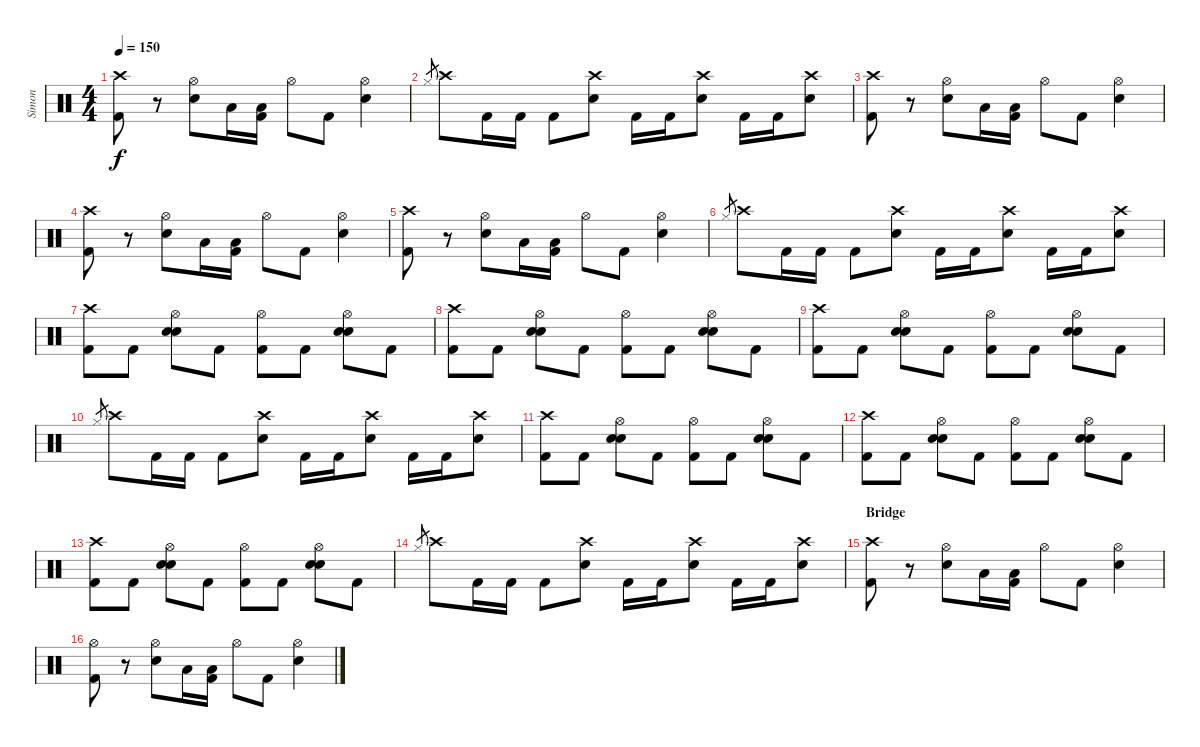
\track ("Simon" "Simon") {instrument percussion}
\staff {score}
\articulation defaults
\ts (4 4)
\tempo 150
\clef neutral
\ks c
("Crash high (hit)" "Kick (hit) 2").8{dy f} r.8 ("Hi-Hat (open)" "Electric Snare (hit)").8 "Low Tom (hit)".16 ("Kick (hit) 2" "Low Tom (hit)").16 "Hi-Hat (open)".8 "Kick (hit) 2".8 ("Hi-Hat (open)" "Electric Snare (hit)").4 |
"Hi-Hat (closed)".8{gr} "Crash high (hit)".8 "Kick (hit) 2".16 "Kick (hit) 2".16 "Kick (hit) 2".8 ("Crash high (hit)" "Electric Snare (hit)").8 "Kick (hit) 2".16 "Kick (hit) 2".16 ("Crash high (hit)" "Electric Snare (hit)").8 "Kick (hit) 2".16 "Kick (hit) 2".16 ("Crash high (hit)" "Electric Snare (hit)").8 |
("Crash high (hit)" "Kick (hit) 2").8 r.8 ("Hi-Hat (open)" "Electric Snare (hit)").8 "Low Tom (hit)".16 ("Kick (hit) 2" "Low Tom (hit)").16 "Hi-Hat (open)".8 "Kick (hit) 2".8 ("Hi-Hat (open)" "Electric Snare (hit)").4 |
("Crash high (hit)" "Kick (hit) 2").8 r.8 ("Hi-Hat (open)" "Electric Snare (hit)").8 "Low Tom (hit)".16 ("Kick (hit) 2" "Low Tom (hit)").16 "Hi-Hat (open)".8 "Kick (hit) 2".8 ("Hi-Hat (open)" "Electric Snare (hit)").4 |
("Crash high (hit)" "Kick (hit) 2").8 r.8 ("Hi-Hat (open)" "Electric Snare (hit)").8 "Low Tom (hit)".16 ("Kick (hit) 2" "Low Tom (hit)").16 "Hi-Hat (open)".8 "Kick (hit) 2".8 ("Hi-Hat (open)" "Electric Snare (hit)").4 |
"Hi-Hat (closed)".8{gr} "Crash high (hit)".8 "Kick (hit) 2".16 "Kick (hit) 2".16 "Kick (hit) 2".8 ("Crash high (hit)" "Electric Snare (hit)").8 "Kick (hit) 2".16 "Kick (hit) 2".16 ("Crash high (hit)" "Electric Snare (hit)").8 "Kick (hit) 2".16 "Kick (hit) 2".16 ("Crash high (hit)" "Electric Snare (hit)").8 |
("Crash high (hit)" "Kick (hit) 2").8 "Kick (hit) 2".8 ("Hi-Hat (open)" "Electric Snare (hit)" "Electric Snare (hit)").8 "Kick (hit) 2".8 ("Hi-Hat (open)" "Kick (hit) 2").8 "Kick (hit) 2".8 ("Hi-Hat (open)" "Electric Snare (hit)" "Electric Snare (hit)").8 "Kick (hit) 2".8 |
("Crash high (hit)" "Kick (hit) 2").8 "Kick (hit) 2".8 ("Hi-Hat (open)" "Electric Snare (hit)" "Electric Snare (hit)").8 "Kick (hit) 2".8 ("Hi-Hat (open)" "Kick (hit) 2").8 "Kick (hit) 2".8 ("Hi-Hat (open)" "Electric Snare (hit)" "Electric Snare (hit)").8 "Kick (hit) 2".8 |
("Crash high (hit)" "Kick (hit) 2").8 "Kick (hit) 2".8 ("Hi-Hat (open)" "Electric Snare (hit)" "Electric Snare (hit)").8 "Kick (hit) 2".8 ("Hi-Hat (open)" "Kick (hit) 2").8 "Kick (hit) 2".8 ("Hi-Hat (open)" "Electric Snare (hit)" "Electric Snare (hit)").8 "Kick (hit) 2".8 |
"Hi-Hat (closed)".8{gr} "Crash high (hit)".8 "Kick (hit) 2".16 "Kick (hit) 2".16 "Kick (hit) 2".8 ("Crash high (hit)" "Electric Snare (hit)").8 "Kick (hit) 2".16 "Kick (hit) 2".16 ("Crash high (hit)" "Electric Snare (hit)").8 "Kick (hit) 2".16 "Kick (hit) 2".16 ("Crash high (hit)" "Electric Snare (hit)").8 |
("Crash high (hit)" "Kick (hit) 2").8 "Kick (hit) 2".8 ("Hi-Hat (open)" "Electric Snare (hit)" "Electric Snare (hit)").8 "Kick (hit) 2".8 ("Hi-Hat (open)" "Kick (hit) 2").8 "Kick (hit) 2".8 ("Hi-Hat (open)" "Electric Snare (hit)" "Electric Snare (hit)").8 "Kick (hit) 2".8 |
("Crash high (hit)" "Kick (hit) 2").8 "Kick (hit) 2".8 ("Hi-Hat (open)" "Electric Snare (hit)" "Electric Snare (hit)").8 "Kick (hit) 2".8 ("Hi-Hat (open)" "Kick (hit) 2").8 "Kick (hit) 2".8 ("Hi-Hat (open)" "Electric Snare (hit)" "Electric Snare (hit)").8 "Kick (hit) 2".8 |
("Crash high (hit)" "Kick (hit) 2").8 "Kick (hit) 2".8 ("Hi-Hat (open)" "Electric Snare (hit)" "Electric Snare (hit)").8 "Kick (hit) 2".8 ("Hi-Hat (open)" "Kick (hit) 2").8 "Kick (hit) 2".8 ("Hi-Hat (open)" "Electric Snare (hit)" "Electric Snare (hit)").8 "Kick (hit) 2".8 |
"Hi-Hat (closed)".8{gr} "Crash high (hit)".8 "Kick (hit) 2".16 "Kick (hit) 2".16 "Kick (hit) 2".8 ("Crash high (hit)" "Electric Snare (hit)").8 "Kick (hit) 2".16 "Kick (hit) 2".16 ("Crash high (hit)" "Electric Snare (hit)").8 "Kick (hit) 2".16 "Kick (hit) 2".16 ("Crash high (hit)" "Electric Snare (hit)").8 |
\section ("" "Bridge")
("Crash high (hit)" "Kick (hit) 2").8 r.8 ("Hi-Hat (open)" "Electric Snare (hit)").8 "Low Tom (hit)".16 ("Kick (hit) 2" "Low Tom (hit)").16 "Hi-Hat (open)".8 "Kick (hit) 2".8 ("Hi-Hat (open)" "Electric Snare (hit)").4 |
("Hi-Hat (open)" "Kick (hit) 2").8 r.8 ("Hi-Hat (open)" "Electric Snare (hit)").8 "Low Tom (hit)".16 ("Kick (hit) 2" "Low Tom (hit)").16 "Hi-Hat (open)".8 "Kick (hit) 2".8 ("Hi-Hat (open)" "Electric Snare (hit)").4
